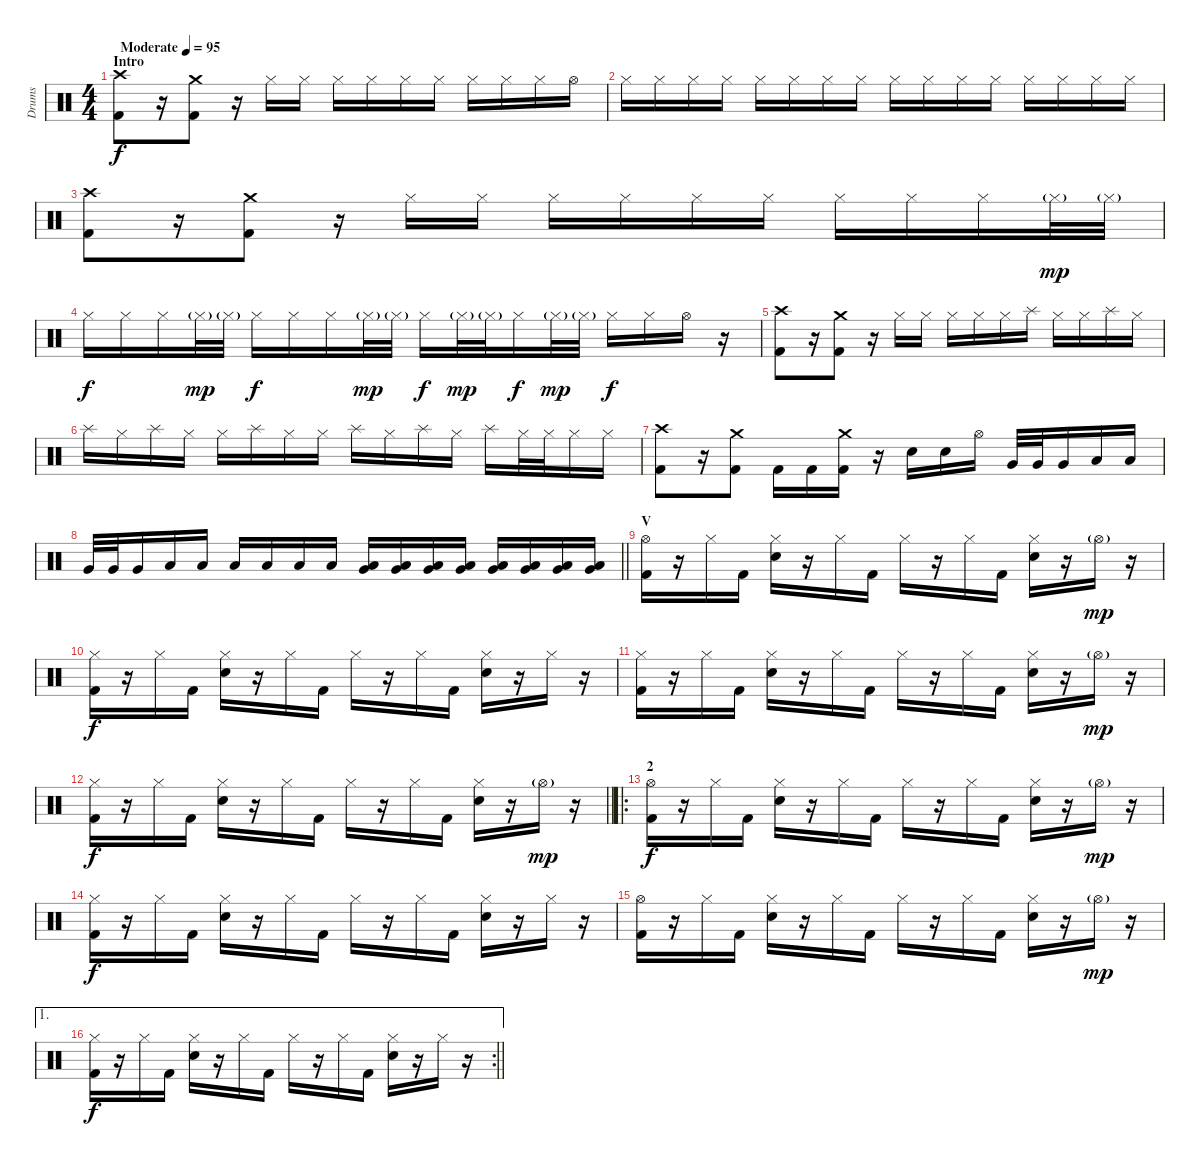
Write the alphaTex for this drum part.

\track ("Drums" "Drums") {instrument percussion}
\staff {score}
\articulation defaults
\ts (4 4)
\section ("" "Intro")
\tempo (95 "Moderate")
\clef neutral
\ks c
("Crash high (hit)" "Kick (hit) 2").8{dy f} r.16 ("Crash medium (hit)" "Kick (hit) 2").8 r.16 "Hi-Hat (closed)".16 "Hi-Hat (closed)".16 "Hi-Hat (closed)".16 "Hi-Hat (closed)".16 "Hi-Hat (closed)".16 "Hi-Hat (closed)".16 "Hi-Hat (closed)".16 "Hi-Hat (closed)".16 "Hi-Hat (closed)".16 "Hi-Hat (open)".16 |
"Hi-Hat (closed)".16 "Hi-Hat (closed)".16 "Hi-Hat (closed)".16 "Hi-Hat (closed)".16 "Hi-Hat (closed)".16 "Hi-Hat (closed)".16 "Hi-Hat (closed)".16 "Hi-Hat (closed)".16 "Hi-Hat (closed)".16 "Hi-Hat (closed)".16 "Hi-Hat (closed)".16 "Hi-Hat (closed)".16 "Hi-Hat (closed)".16 "Hi-Hat (closed)".16 "Hi-Hat (closed)".16 "Hi-Hat (closed)".16 |
("Crash high (hit)" "Kick (hit) 2").8 r.16 ("Crash medium (hit)" "Kick (hit) 2").8 r.16 "Hi-Hat (closed)".16 "Hi-Hat (closed)".16 "Hi-Hat (closed)".16 "Hi-Hat (closed)".16 "Hi-Hat (closed)".16 "Hi-Hat (closed)".16 "Hi-Hat (closed)".16 "Hi-Hat (closed)".16 "Hi-Hat (closed)".16 "Hi-Hat (closed)"{g}.32{dy mp} "Hi-Hat (closed)"{g}.32 |
"Hi-Hat (closed)".16{dy f} "Hi-Hat (closed)".16 "Hi-Hat (closed)".16 "Hi-Hat (closed)"{g}.32{dy mp} "Hi-Hat (closed)"{g}.32 "Hi-Hat (closed)".16{dy f} "Hi-Hat (closed)".16 "Hi-Hat (closed)".16 "Hi-Hat (closed)"{g}.32{dy mp} "Hi-Hat (closed)"{g}.32 "Hi-Hat (closed)".16{dy f} "Hi-Hat (closed)"{g}.32{dy mp} "Hi-Hat (closed)"{g}.32 "Hi-Hat (closed)".16{dy f} "Hi-Hat (closed)"{g}.32{dy mp} "Hi-Hat (closed)"{g}.32 "Hi-Hat (closed)".16{dy f} "Hi-Hat (closed)".16 "Hi-Hat (open)".16 r.16 |
("Crash high (hit)" "Kick (hit) 2").8 r.16 ("Crash medium (hit)" "Kick (hit) 2").8 r.16 "Hi-Hat (closed)".16 "Hi-Hat (closed)".16 "Hi-Hat (closed)".16 "Hi-Hat (closed)".16 "Hi-Hat (closed)".16 "Splash (hit)".16 "Hi-Hat (closed)".16 "Hi-Hat (closed)".16 "Splash (hit)".16 "Hi-Hat (closed)".16 |
"Splash (hit)".16 "Hi-Hat (closed)".16 "Splash (hit)".16 "Hi-Hat (closed)".16 "Hi-Hat (closed)".16 "Splash (hit)".16 "Hi-Hat (closed)".16 "Hi-Hat (closed)".16 "Splash (hit)".16 "Hi-Hat (closed)".16 "Splash (hit)".16 "Hi-Hat (closed)".16 "Splash (hit)".16 "Hi-Hat (closed)".32 "Hi-Hat (closed)".32 "Hi-Hat (closed)".16 "Hi-Hat (closed)".16 |
("Crash high (hit)" "Kick (hit) 2").8 r.16 ("Crash medium (hit)" "Kick (hit) 2").8 "Kick (hit) 2".16 "Kick (hit) 2".16 ("Crash medium (hit)" "Kick (hit) 2").16 r.16 "Snare (hit) 2".16 "Snare (hit) 2".16 "Hi-Hat (open)".16 "Very Low Tom (hit)".32 "Very Low Tom (hit)".32 "Very Low Tom (hit)".16 "Low Tom (hit)".16 "Low Tom (hit)".16 |
\barLineRight lightlight "Very Low Tom (hit)".32 "Very Low Tom (hit)".32 "Very Low Tom (hit)".16 "Low Tom (hit)".16 "Low Tom (hit)".16 "Low Tom (hit)".16 "Low Tom (hit)".16 "Low Tom (hit)".16 "Low Tom (hit)".16
("Very Low Tom (hit)" "Low Tom (hit)").16 ("Very Low Tom (hit)" "Low Tom (hit)").16 ("Very Low Tom (hit)" "Low Tom (hit)").16 ("Very Low Tom (hit)" "Low Tom (hit)").16 ("Very Low Tom (hit)" "Low Tom (hit)").16 ("Very Low Tom (hit)" "Low Tom (hit)").16 ("Very Low Tom (hit)" "Low Tom (hit)").16 ("Very Low Tom (hit)" "Low Tom (hit)").16 |
\section ("" "V")
("Hi-Hat (open)" "Kick (hit) 2").16 r.16 "Hi-Hat (closed)".16 "Kick (hit) 2".16 ("Hi-Hat (closed)" "Snare (hit) 2").16 r.16 "Hi-Hat (closed)".16 "Kick (hit) 2".16 "Hi-Hat (closed)".16 r.16 "Hi-Hat (closed)".16 "Kick (hit) 2".16 ("Hi-Hat (closed)" "Snare (hit) 2").16 r.16 "Hi-Hat (open)"{g}.16{dy mp} r.16 |
("Hi-Hat (closed)" "Kick (hit) 2").16{dy f} r.16 "Hi-Hat (closed)".16 "Kick (hit) 2".16 ("Hi-Hat (closed)" "Snare (hit) 2").16 r.16 "Hi-Hat (closed)".16 "Kick (hit) 2".16 "Hi-Hat (closed)".16 r.16 "Hi-Hat (closed)".16 "Kick (hit) 2".16 ("Hi-Hat (closed)" "Snare (hit) 2").16 r.16 "Hi-Hat (closed)".16 r.16 |
("Hi-Hat (closed)" "Kick (hit) 2").16 r.16 "Hi-Hat (closed)".16 "Kick (hit) 2".16 ("Hi-Hat (closed)" "Snare (hit) 2").16 r.16 "Hi-Hat (closed)".16 "Kick (hit) 2".16 "Hi-Hat (closed)".16 r.16 "Hi-Hat (closed)".16 "Kick (hit) 2".16 ("Hi-Hat (closed)" "Snare (hit) 2").16 r.16 "Hi-Hat (open)"{g}.16{dy mp} r.16 |
\barLineRight lightlight
("Hi-Hat (closed)" "Kick (hit) 2").16{dy f} r.16 "Hi-Hat (closed)".16 "Kick (hit) 2".16 ("Hi-Hat (closed)" "Snare (hit) 2").16 r.16 "Hi-Hat (closed)".16 "Kick (hit) 2".16 "Hi-Hat (closed)".16 r.16 "Hi-Hat (closed)".16 "Kick (hit) 2".16 ("Hi-Hat (closed)" "Snare (hit) 2").16 r.16 "Hi-Hat (open)"{g}.16{dy mp} r.16 |
\ro
\section ("" "2")
("Hi-Hat (open)" "Kick (hit) 2").16{dy f} r.16 "Hi-Hat (closed)".16 "Kick (hit) 2".16 ("Hi-Hat (closed)" "Snare (hit) 2").16 r.16 "Hi-Hat (closed)".16 "Kick (hit) 2".16 "Hi-Hat (closed)".16 r.16 "Hi-Hat (closed)".16 "Kick (hit) 2".16 ("Hi-Hat (closed)" "Snare (hit) 2").16 r.16 "Hi-Hat (open)"{g}.16{dy mp} r.16 |
("Hi-Hat (closed)" "Kick (hit) 2").16{dy f} r.16 "Hi-Hat (closed)".16 "Kick (hit) 2".16 ("Hi-Hat (closed)" "Snare (hit) 2").16 r.16 "Hi-Hat (closed)".16 "Kick (hit) 2".16 "Hi-Hat (closed)".16 r.16 "Hi-Hat (closed)".16 "Kick (hit) 2".16 ("Hi-Hat (closed)" "Snare (hit) 2").16 r.16 "Hi-Hat (closed)".16 r.16 |
("Hi-Hat (open)" "Kick (hit) 2").16 r.16 "Hi-Hat (closed)".16 "Kick (hit) 2".16 ("Hi-Hat (closed)" "Snare (hit) 2").16 r.16 "Hi-Hat (closed)".16 "Kick (hit) 2".16 "Hi-Hat (closed)".16 r.16 "Hi-Hat (closed)".16 "Kick (hit) 2".16 ("Hi-Hat (closed)" "Snare (hit) 2").16 r.16 "Hi-Hat (open)"{g}.16{dy mp} r.16 |
\ae 1
\rc 2
\barLineRight lightlight
("Hi-Hat (closed)" "Kick (hit) 2").16{dy f} r.16 "Hi-Hat (closed)".16 "Kick (hit) 2".16 ("Hi-Hat (closed)" "Snare (hit) 2").16 r.16 "Hi-Hat (closed)".16 "Kick (hit) 2".16 "Hi-Hat (closed)".16 r.16 "Hi-Hat (closed)".16 "Kick (hit) 2".16 ("Hi-Hat (closed)" "Snare (hit) 2").16 r.16 "Hi-Hat (closed)".16 r.16
